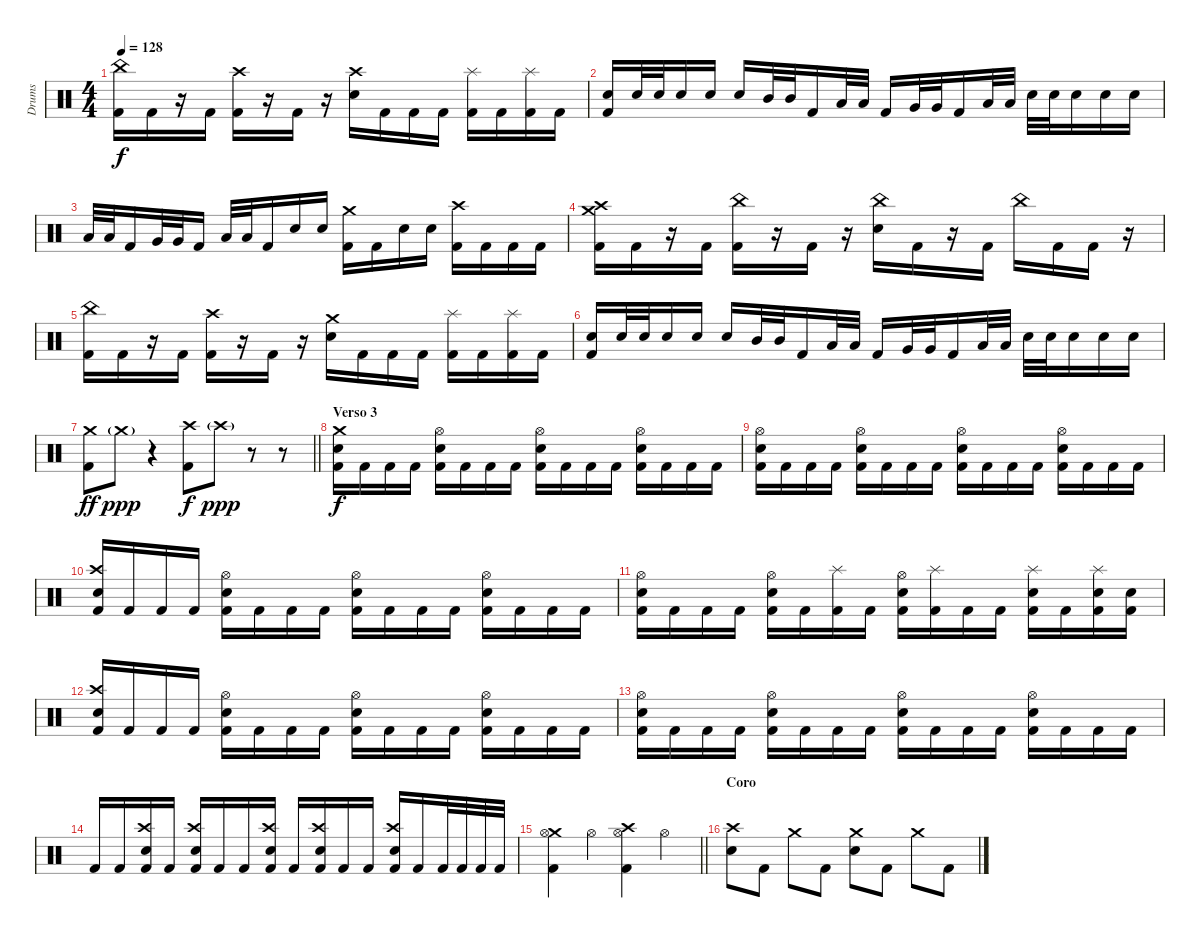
\track ("Drums" "Drums") {instrument percussion}
\staff {score}
\articulation defaults
\ts (4 4)
\tempo 128
\clef neutral
\ks c
("China (hit)" "Kick (hit) 2").16{dy f} "Kick (hit) 2".16 r.16 "Kick (hit) 2".16 ("Crash high (hit)" "Kick (hit) 2").16 r.16 "Kick (hit) 2".16 r.16 ("Crash high (hit)" "Electric Snare (hit)").16 "Kick (hit) 2".16 "Kick (hit) 2".16 "Kick (hit) 2".16 ("Splash (hit)" "Kick (hit) 2").16 "Kick (hit) 2".16 ("Splash (hit)" "Kick (hit) 2").16 "Kick (hit) 2".16 |
("Electric Snare (hit)" "Kick (hit) 2").16 "Electric Snare (hit)".32 "Electric Snare (hit)".32 "Electric Snare (hit)".16 "Electric Snare (hit)".16 "Electric Snare (hit)".16 "Mid Tom (hit)".32 "Mid Tom (hit)".32 "Kick (hit) 2".16 "Low Tom (hit)".32 "Low Tom (hit)".32 "Kick (hit) 2".16 "Very Low Tom (hit)".32 "Very Low Tom (hit)".32 "Kick (hit) 2".16 "Low Floor Tom (hit)".32 "Low Floor Tom (hit)".32 "Electric Snare (hit)".32 "Electric Snare (hit)".32 "Electric Snare (hit)".16 "Electric Snare (hit)".16 "Electric Snare (hit)".16 |
"Low Tom (hit)".32 "Low Tom (hit)".32 "Kick (hit) 2".16 "Very Low Tom (hit)".32 "Very Low Tom (hit)".32 "Kick (hit) 2".16 "Low Floor Tom (hit)".32 "Low Floor Tom (hit)".32 "Kick (hit) 2".16 "Electric Snare (hit)".16 "Electric Snare (hit)".16 ("Crash medium (hit)" "Kick (hit) 2").16 "Kick (hit) 2".16 "Electric Snare (hit)".16 "Electric Snare (hit)".16 ("Crash high (hit)" "Kick (hit) 2").16 "Kick (hit) 2".16 "Kick (hit) 2".16 "Kick (hit) 2".16 |
("Crash medium (hit)" "Crash high (hit)" "Kick (hit) 2").16 "Kick (hit) 2".16 r.16 "Kick (hit) 2".16 ("China (hit)" "Kick (hit) 2").16 r.16 "Kick (hit) 2".16 r.16 ("China (hit)" "Electric Snare (hit)").16 "Kick (hit) 2".16 r.16 "Kick (hit) 2".16 "China (hit)".16 "Kick (hit) 2".16 "Kick (hit) 2".16 r.16 |
("China (hit)" "Kick (hit) 2").16 "Kick (hit) 2".16 r.16 "Kick (hit) 2".16 ("Crash high (hit)" "Kick (hit) 2").16 r.16 "Kick (hit) 2".16 r.16 ("Crash medium (hit)" "Electric Snare (hit)").16 "Kick (hit) 2".16 "Kick (hit) 2".16 "Kick (hit) 2".16 ("Splash (hit)" "Kick (hit) 2").16 "Kick (hit) 2".16 ("Splash (hit)" "Kick (hit) 2").16 "Kick (hit) 2".16 |
("Electric Snare (hit)" "Kick (hit) 2").16 "Electric Snare (hit)".32 "Electric Snare (hit)".32 "Electric Snare (hit)".16 "Electric Snare (hit)".16 "Electric Snare (hit)".16 "Mid Tom (hit)".32 "Mid Tom (hit)".32 "Kick (hit) 2".16 "Low Tom (hit)".32 "Low Tom (hit)".32 "Kick (hit) 2".16 "Very Low Tom (hit)".32 "Very Low Tom (hit)".32 "Kick (hit) 2".16 "Low Floor Tom (hit)".32 "Low Floor Tom (hit)".32 "Electric Snare (hit)".32 "Electric Snare (hit)".32 "Electric Snare (hit)".16 "Electric Snare (hit)".16 "Electric Snare (hit)".16 |
\barLineRight lightlight
("Crash medium (hit)" "Kick (hit) 2").8{dy ff} "Crash medium (hit)"{g}.8{dy ppp} r.4 ("Crash high (hit)" "Kick (hit) 2").8{dy f} "Crash high (hit)"{g}.8{dy ppp} r.8 r.8 |
\section ("" "Verso 3")
("Crash medium (hit)" "Electric Snare (hit)" "Kick (hit) 2").16{dy f} "Kick (hit) 2".16 "Kick (hit) 2".16 "Kick (hit) 2".16 ("Hi-Hat (open)" "Electric Snare (hit)" "Kick (hit) 2").16 "Kick (hit) 2".16 "Kick (hit) 2".16 "Kick (hit) 2".16 ("Hi-Hat (open)" "Electric Snare (hit)" "Kick (hit) 2").16 "Kick (hit) 2".16 "Kick (hit) 2".16 "Kick (hit) 2".16 ("Hi-Hat (open)" "Electric Snare (hit)" "Kick (hit) 2").16 "Kick (hit) 2".16 "Kick (hit) 2".16 "Kick (hit) 2".16 |
("Hi-Hat (open)" "Electric Snare (hit)" "Kick (hit) 2").16 "Kick (hit) 2".16 "Kick (hit) 2".16 "Kick (hit) 2".16 ("Hi-Hat (open)" "Electric Snare (hit)" "Kick (hit) 2").16 "Kick (hit) 2".16 "Kick (hit) 2".16 "Kick (hit) 2".16 ("Hi-Hat (open)" "Electric Snare (hit)" "Kick (hit) 2").16 "Kick (hit) 2".16 "Kick (hit) 2".16 "Kick (hit) 2".16 ("Hi-Hat (open)" "Electric Snare (hit)" "Kick (hit) 2").16 "Kick (hit) 2".16 "Kick (hit) 2".16 "Kick (hit) 2".16 |
("Crash high (hit)" "Electric Snare (hit)" "Kick (hit) 2").16 "Kick (hit) 2".16 "Kick (hit) 2".16 "Kick (hit) 2".16 ("Hi-Hat (open)" "Electric Snare (hit)" "Kick (hit) 2").16 "Kick (hit) 2".16 "Kick (hit) 2".16 "Kick (hit) 2".16 ("Hi-Hat (open)" "Electric Snare (hit)" "Kick (hit) 2").16 "Kick (hit) 2".16 "Kick (hit) 2".16 "Kick (hit) 2".16 ("Hi-Hat (open)" "Electric Snare (hit)" "Kick (hit) 2").16 "Kick (hit) 2".16 "Kick (hit) 2".16 "Kick (hit) 2".16 |
("Hi-Hat (open)" "Electric Snare (hit)" "Kick (hit) 2").16 "Kick (hit) 2".16 "Kick (hit) 2".16 "Kick (hit) 2".16 ("Hi-Hat (open)" "Electric Snare (hit)" "Kick (hit) 2").16 "Kick (hit) 2".16 ("Splash (hit)" "Kick (hit) 2").16 "Kick (hit) 2".16 ("Hi-Hat (open)" "Electric Snare (hit)" "Kick (hit) 2").16 ("Splash (hit)" "Kick (hit) 2").16 "Kick (hit) 2".16 "Kick (hit) 2".16 ("Splash (hit)" "Electric Snare (hit)" "Kick (hit) 2").16 "Kick (hit) 2".16 ("Splash (hit)" "Electric Snare (hit)" "Kick (hit) 2").16 ("Electric Snare (hit)" "Kick (hit) 2").16 |
("Crash high (hit)" "Electric Snare (hit)" "Kick (hit) 2").16 "Kick (hit) 2".16 "Kick (hit) 2".16 "Kick (hit) 2".16 ("Hi-Hat (open)" "Electric Snare (hit)" "Kick (hit) 2").16 "Kick (hit) 2".16 "Kick (hit) 2".16 "Kick (hit) 2".16 ("Hi-Hat (open)" "Electric Snare (hit)" "Kick (hit) 2").16 "Kick (hit) 2".16 "Kick (hit) 2".16 "Kick (hit) 2".16 ("Hi-Hat (open)" "Electric Snare (hit)" "Kick (hit) 2").16 "Kick (hit) 2".16 "Kick (hit) 2".16 "Kick (hit) 2".16 |
("Hi-Hat (open)" "Electric Snare (hit)" "Kick (hit) 2").16 "Kick (hit) 2".16 "Kick (hit) 2".16 "Kick (hit) 2".16 ("Hi-Hat (open)" "Electric Snare (hit)" "Kick (hit) 2").16 "Kick (hit) 2".16 "Kick (hit) 2".16 "Kick (hit) 2".16 ("Hi-Hat (open)" "Electric Snare (hit)" "Kick (hit) 2").16 "Kick (hit) 2".16 "Kick (hit) 2".16 "Kick (hit) 2".16 ("Hi-Hat (open)" "Electric Snare (hit)" "Kick (hit) 2").16 "Kick (hit) 2".16 "Kick (hit) 2".16 "Kick (hit) 2".16 |
"Kick (hit) 2".16 "Kick (hit) 2".16 ("Crash high (hit)" "Electric Snare (hit)" "Kick (hit) 2").16 "Kick (hit) 2".16 ("Crash high (hit)" "Electric Snare (hit)" "Kick (hit) 2").16 "Kick (hit) 2".16 "Kick (hit) 2".16 ("Crash high (hit)" "Electric Snare (hit)" "Kick (hit) 2").16 "Kick (hit) 2".16 ("Crash high (hit)" "Electric Snare (hit)" "Kick (hit) 2").16 "Kick (hit) 2".16 "Kick (hit) 2".16 ("Crash high (hit)" "Electric Snare (hit)" "Kick (hit) 2").16 "Kick (hit) 2".16 "Kick (hit) 2".32 "Kick (hit) 2".32 "Kick (hit) 2".32 "Kick (hit) 2".32 |
\barLineRight lightlight
("Crash medium (hit)" "Hi-Hat (open)" "Kick (hit) 2").4 "Hi-Hat (open)".4 ("Crash high (hit)" "Hi-Hat (open)" "Kick (hit) 2").4 "Hi-Hat (open)".4 |
\section ("" "Coro")
("Crash high (hit)" "Electric Snare (hit)").8 "Kick (hit) 2".8 "Crash medium (hit)".8 "Kick (hit) 2".8 ("Crash medium (hit)" "Electric Snare (hit)").8 "Kick (hit) 2".8 "Crash medium (hit)".8 "Kick (hit) 2".8
